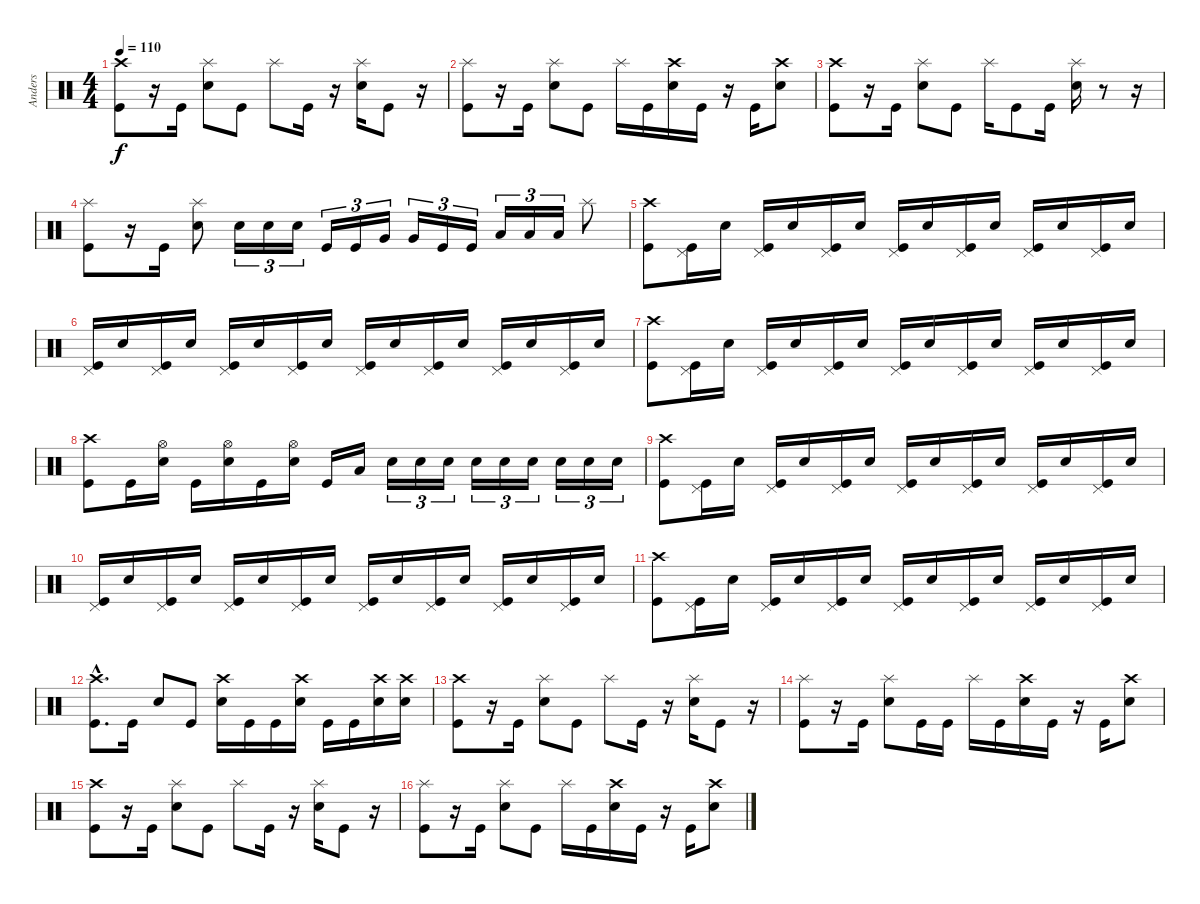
\track ("Anders" "Anders") {instrument percussion}
\staff {score}
\articulation defaults
\ts (4 4)
\tempo 110
\clef neutral
\ks c
("Crash high (hit)" "Kick (hit)").8{dy f} r.16 "Kick (hit)".16 ("Splash (hit)" "Snare (hit) 2").8 "Kick (hit)".8 "Splash (hit)".8 "Kick (hit)".16 r.16 ("Splash (hit)" "Snare (hit) 2").16 "Kick (hit)".8 r.16 |
("Splash (hit)" "Kick (hit)").8 r.16 "Kick (hit)".16 ("Splash (hit)" "Snare (hit) 2").8 "Kick (hit)".8 "Splash (hit)".16 "Kick (hit)".16 ("Crash high (hit)" "Snare (hit) 2").16 "Kick (hit)".16 r.16 "Kick (hit)".16 ("Crash high (hit)" "Snare (hit) 2").8 |
("Crash high (hit)" "Kick (hit)").8 r.16 "Kick (hit)".16 ("Splash (hit)" "Snare (hit) 2").8 "Kick (hit)".8 "Splash (hit)".16 "Kick (hit)".8 "Kick (hit)".16 ("Splash (hit)" "Snare (hit) 2").16 r.8 r.16 |
("Splash (hit)" "Kick (hit)").8 r.16 "Kick (hit)".16 ("Splash (hit)" "Snare (hit) 2").8 "Snare (hit) 2".16{tu (3 2)} "Snare (hit) 2".16{tu (3 2)} "Snare (hit) 2".16{tu (3 2)} "Kick (hit)".16{tu (3 2)} "Kick (hit)".16{tu (3 2)} "Very Low Tom (hit)".16{tu (3 2)} "Very Low Tom (hit)".16{tu (3 2)} "Kick (hit)".16{tu (3 2)} "Kick (hit)".16{tu (3 2)} "Low Floor Tom (hit)".16{tu (3 2)} "Low Floor Tom (hit)".16{tu (3 2)} "Low Floor Tom (hit)".16{tu (3 2)} "Splash (hit)".8 |
("Crash high (hit)" "Kick (hit)").8 ("Pedal Hi-Hat (hit)" "Kick (hit)").16 "Snare (hit) 2".16 ("Pedal Hi-Hat (hit)" "Kick (hit)").16 "Snare (hit) 2".16 ("Pedal Hi-Hat (hit)" "Kick (hit)").16 "Snare (hit) 2".16 ("Pedal Hi-Hat (hit)" "Kick (hit)").16 "Snare (hit) 2".16 ("Pedal Hi-Hat (hit)" "Kick (hit)").16 "Snare (hit) 2".16 ("Pedal Hi-Hat (hit)" "Kick (hit)").16 "Snare (hit) 2".16 ("Pedal Hi-Hat (hit)" "Kick (hit)").16 "Snare (hit) 2".16 |
("Pedal Hi-Hat (hit)" "Kick (hit)").16 "Snare (hit) 2".16 ("Pedal Hi-Hat (hit)" "Kick (hit)").16 "Snare (hit) 2".16 ("Pedal Hi-Hat (hit)" "Kick (hit)").16 "Snare (hit) 2".16 ("Pedal Hi-Hat (hit)" "Kick (hit)").16 "Snare (hit) 2".16 ("Pedal Hi-Hat (hit)" "Kick (hit)").16 "Snare (hit) 2".16 ("Pedal Hi-Hat (hit)" "Kick (hit)").16 "Snare (hit) 2".16 ("Pedal Hi-Hat (hit)" "Kick (hit)").16 "Snare (hit) 2".16 ("Pedal Hi-Hat (hit)" "Kick (hit)").16 "Snare (hit) 2".16 |
("Crash high (hit)" "Kick (hit)").8 ("Pedal Hi-Hat (hit)" "Kick (hit)").16 "Snare (hit) 2".16 ("Pedal Hi-Hat (hit)" "Kick (hit)").16 "Snare (hit) 2".16 ("Pedal Hi-Hat (hit)" "Kick (hit)").16 "Snare (hit) 2".16 ("Pedal Hi-Hat (hit)" "Kick (hit)").16 "Snare (hit) 2".16 ("Pedal Hi-Hat (hit)" "Kick (hit)").16 "Snare (hit) 2".16 ("Pedal Hi-Hat (hit)" "Kick (hit)").16 "Snare (hit) 2".16 ("Pedal Hi-Hat (hit)" "Kick (hit)").16 "Snare (hit) 2".16 |
("Crash high (hit)" "Kick (hit)").8 "Kick (hit)".16 ("Hi-Hat (open)" "Snare (hit) 2").16 "Kick (hit)".16 ("Hi-Hat (open)" "Snare (hit) 2").16 "Kick (hit)".16 ("Hi-Hat (open)" "Snare (hit) 2").16 "Kick (hit)".16 "Low Floor Tom (hit)".16 "Snare (hit) 2".16{tu (3 2)} "Snare (hit) 2".16{tu (3 2)} "Snare (hit) 2".16{tu (3 2)} "Snare (hit) 2".16{tu (3 2)} "Snare (hit) 2".16{tu (3 2)} "Snare (hit) 2".16{tu (3 2)} "Snare (hit) 2".16{tu (3 2)} "Snare (hit) 2".16{tu (3 2)} "Snare (hit) 2".16{tu (3 2)} |
("Crash high (hit)" "Kick (hit)").8 ("Pedal Hi-Hat (hit)" "Kick (hit)").16 "Snare (hit) 2".16 ("Pedal Hi-Hat (hit)" "Kick (hit)").16 "Snare (hit) 2".16 ("Pedal Hi-Hat (hit)" "Kick (hit)").16 "Snare (hit) 2".16 ("Pedal Hi-Hat (hit)" "Kick (hit)").16 "Snare (hit) 2".16 ("Pedal Hi-Hat (hit)" "Kick (hit)").16 "Snare (hit) 2".16 ("Pedal Hi-Hat (hit)" "Kick (hit)").16 "Snare (hit) 2".16 ("Pedal Hi-Hat (hit)" "Kick (hit)").16 "Snare (hit) 2".16 |
("Pedal Hi-Hat (hit)" "Kick (hit)").16 "Snare (hit) 2".16 ("Pedal Hi-Hat (hit)" "Kick (hit)").16 "Snare (hit) 2".16 ("Pedal Hi-Hat (hit)" "Kick (hit)").16 "Snare (hit) 2".16 ("Pedal Hi-Hat (hit)" "Kick (hit)").16 "Snare (hit) 2".16 ("Pedal Hi-Hat (hit)" "Kick (hit)").16 "Snare (hit) 2".16 ("Pedal Hi-Hat (hit)" "Kick (hit)").16 "Snare (hit) 2".16 ("Pedal Hi-Hat (hit)" "Kick (hit)").16 "Snare (hit) 2".16 ("Pedal Hi-Hat (hit)" "Kick (hit)").16 "Snare (hit) 2".16 |
("Crash high (hit)" "Kick (hit)").8 ("Pedal Hi-Hat (hit)" "Kick (hit)").16 "Snare (hit) 2".16 ("Pedal Hi-Hat (hit)" "Kick (hit)").16 "Snare (hit) 2".16 ("Pedal Hi-Hat (hit)" "Kick (hit)").16 "Snare (hit) 2".16 ("Pedal Hi-Hat (hit)" "Kick (hit)").16 "Snare (hit) 2".16 ("Pedal Hi-Hat (hit)" "Kick (hit)").16 "Snare (hit) 2".16 ("Pedal Hi-Hat (hit)" "Kick (hit)").16 "Snare (hit) 2".16 ("Pedal Hi-Hat (hit)" "Kick (hit)").16 "Snare (hit) 2".16 |
("Crash high (hit)"{hac} "Kick (hit)"{hac}).8{d} "Kick (hit)".16 "Snare (hit) 2".8 "Kick (hit)".8 ("Crash high (hit)" "Snare (hit) 2").16 "Kick (hit)".16 "Kick (hit)".16 ("Crash high (hit)" "Snare (hit) 2").16 "Kick (hit)".16 "Kick (hit)".16 ("Crash high (hit)" "Snare (hit) 2").16 ("Crash high (hit)" "Snare (hit) 2").16 |
("Crash high (hit)" "Kick (hit)").8 r.16 "Kick (hit)".16 ("Splash (hit)" "Snare (hit) 2").8 "Kick (hit)".8 "Splash (hit)".8 "Kick (hit)".16 r.16 ("Splash (hit)" "Snare (hit) 2").16 "Kick (hit)".8 r.16 |
("Splash (hit)" "Kick (hit)").8 r.16 "Kick (hit)".16 ("Splash (hit)" "Snare (hit) 2").8 "Kick (hit)".16 "Kick (hit)".16 "Splash (hit)".16 "Kick (hit)".16 ("Crash high (hit)" "Snare (hit) 2").16 "Kick (hit)".16 r.16 "Kick (hit)".16 ("Crash high (hit)" "Snare (hit) 2").8 |
("Crash high (hit)" "Kick (hit)").8 r.16 "Kick (hit)".16 ("Splash (hit)" "Snare (hit) 2").8 "Kick (hit)".8 "Splash (hit)".8 "Kick (hit)".16 r.16 ("Splash (hit)" "Snare (hit) 2").16 "Kick (hit)".8 r.16 |
("Splash (hit)" "Kick (hit)").8 r.16 "Kick (hit)".16 ("Splash (hit)" "Snare (hit) 2").8 "Kick (hit)".8 "Splash (hit)".16 "Kick (hit)".16 ("Crash high (hit)" "Snare (hit) 2").16 "Kick (hit)".16 r.16 "Kick (hit)".16 ("Crash high (hit)" "Snare (hit) 2").8
